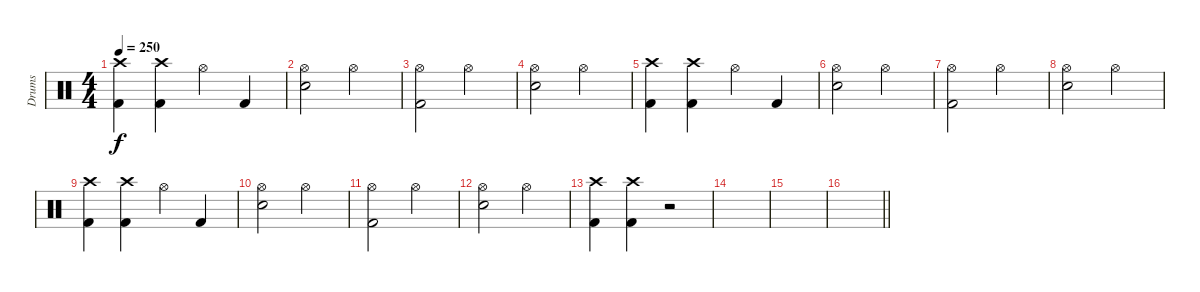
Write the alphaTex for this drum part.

\track ("Drums" "Drums") {instrument percussion}
\staff {score}
\articulation defaults
\ts (4 4)
\tempo 250
\clef neutral
\ks c
("Crash high (hit)" "Kick (hit) 2").4{dy f} ("Crash high (hit)" "Kick (hit) 2").4 "Hi-Hat (open)".4 "Kick (hit) 2".4 |
("Hi-Hat (open)" "Snare (hit) 2").2 "Hi-Hat (open)".2 |
("Hi-Hat (open)" "Kick (hit) 2").2 "Hi-Hat (open)".2 |
("Hi-Hat (open)" "Snare (hit) 2").2 "Hi-Hat (open)".2 |
("Crash high (hit)" "Kick (hit) 2").4 ("Crash high (hit)" "Kick (hit) 2").4 "Hi-Hat (open)".4 "Kick (hit) 2".4 |
("Hi-Hat (open)" "Snare (hit) 2").2 "Hi-Hat (open)".2 |
("Hi-Hat (open)" "Kick (hit) 2").2 "Hi-Hat (open)".2 |
("Hi-Hat (open)" "Snare (hit) 2").2 "Hi-Hat (open)".2 |
("Crash high (hit)" "Kick (hit) 2").4 ("Crash high (hit)" "Kick (hit) 2").4 "Hi-Hat (open)".4 "Kick (hit) 2".4 |
("Hi-Hat (open)" "Snare (hit) 2").2 "Hi-Hat (open)".2 |
("Hi-Hat (open)" "Kick (hit) 2").2 "Hi-Hat (open)".2 |
("Hi-Hat (open)" "Snare (hit) 2").2 "Hi-Hat (open)".2 |
("Crash high (hit)" "Kick (hit) 2").4 ("Crash high (hit)" "Kick (hit) 2").4 r.2 |
|
|
\barLineRight lightlight
